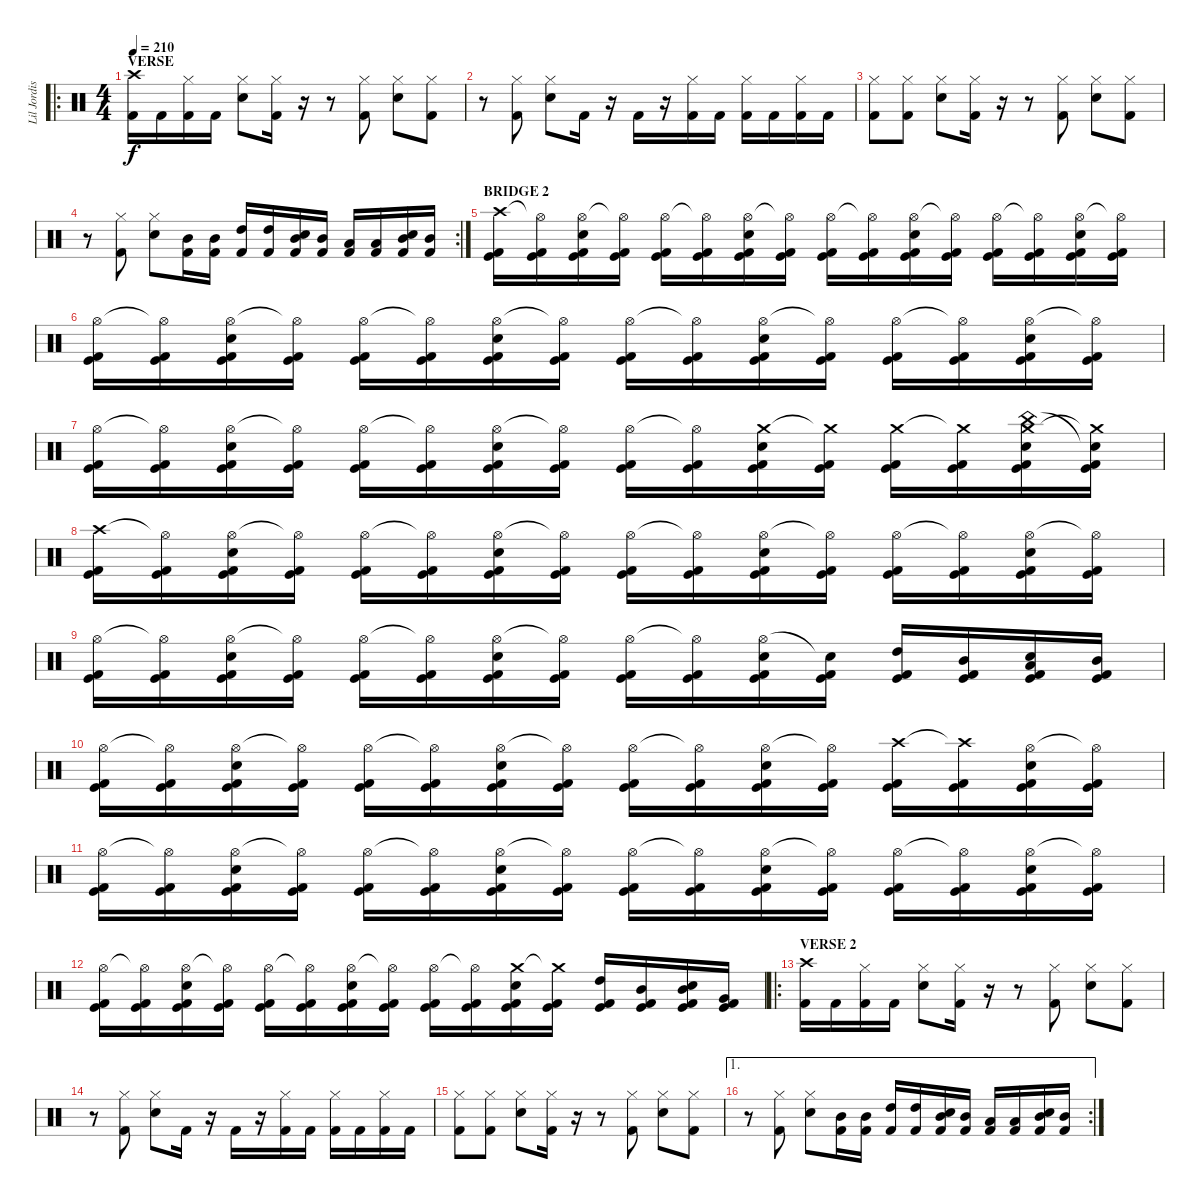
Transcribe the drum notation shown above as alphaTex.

\track ("Lil Jordison" "Lil Jordis") {instrument percussion}
\staff {score}
\articulation defaults
\ro
\ts (4 4)
\section ("" "VERSE")
\tempo 210
\clef neutral
\ks c
("Crash high (hit)" "Kick (hit) 2").16{dy f} "Kick (hit) 2".16 ("Hi-Hat (closed)" "Kick (hit) 2").16 "Kick (hit) 2".16 ("Hi-Hat (closed)" "Electric Snare (hit)").8 ("Hi-Hat (closed)" "Kick (hit) 2").16 r.16 r.8 ("Hi-Hat (closed)" "Kick (hit) 2").8 ("Hi-Hat (closed)" "Electric Snare (hit)").8 ("Hi-Hat (closed)" "Kick (hit) 2").8 |
r.8 ("Hi-Hat (closed)" "Kick (hit) 2").8 ("Hi-Hat (closed)" "Electric Snare (hit)").8 "Kick (hit) 2".16 r.16 "Kick (hit) 2".16 r.16 ("Hi-Hat (closed)" "Kick (hit) 2").16 "Kick (hit) 2".16 ("Hi-Hat (closed)" "Kick (hit) 2").16 "Kick (hit) 2".16 ("Hi-Hat (closed)" "Kick (hit) 2").16 "Kick (hit) 2".16 |
("Hi-Hat (closed)" "Kick (hit) 2").8 ("Hi-Hat (closed)" "Kick (hit) 2").8 ("Hi-Hat (closed)" "Electric Snare (hit)").8 ("Hi-Hat (closed)" "Kick (hit) 2").16 r.16 r.8 ("Hi-Hat (closed)" "Kick (hit) 2").8 ("Hi-Hat (closed)" "Electric Snare (hit)").8 ("Hi-Hat (closed)" "Kick (hit) 2").8 |
\rc 2
r.8 ("Hi-Hat (closed)" "Kick (hit) 2").8 ("Hi-Hat (closed)" "Electric Snare (hit)").8 ("Mid Tom (hit)" "Kick (hit) 2").16 ("Mid Tom (hit)" "Kick (hit) 2").16 ("High Tom (hit)" "Kick (hit) 2").16 ("High Tom (hit)" "Kick (hit) 2").16 ("Mid Tom (hit)" "Electric Snare (hit)" "Kick (hit) 2").16 ("Mid Tom (hit)" "Kick (hit) 2").16 ("Low Tom (hit)" "Kick (hit) 2").16 ("Low Tom (hit)" "Kick (hit) 2").16 ("Mid Tom (hit)" "Electric Snare (hit)" "Kick (hit) 2").16 ("Mid Tom (hit)" "Kick (hit) 2").16 |
\section ("" "BRIDGE 2")
("Crash high (hit)" "Kick (hit)" "Kick (hit) 2").16 ("Hi-Hat (open)"{t} "Kick (hit)" "Kick (hit) 2").16 ("Hi-Hat (open)" "Electric Snare (hit)" "Kick (hit)" "Kick (hit) 2").16 ("Hi-Hat (open)"{t} "Kick (hit)" "Kick (hit) 2").16 ("Hi-Hat (open)" "Kick (hit)" "Kick (hit) 2").16 ("Hi-Hat (open)"{t} "Kick (hit)" "Kick (hit) 2").16 ("Hi-Hat (open)" "Electric Snare (hit)" "Kick (hit)" "Kick (hit) 2").16 ("Hi-Hat (open)"{t} "Kick (hit)" "Kick (hit) 2").16 ("Hi-Hat (open)" "Kick (hit)" "Kick (hit) 2").16 ("Hi-Hat (open)"{t} "Kick (hit)" "Kick (hit) 2").16 ("Hi-Hat (open)" "Electric Snare (hit)" "Kick (hit)" "Kick (hit) 2").16 ("Hi-Hat (open)"{t} "Kick (hit)" "Kick (hit) 2").16 ("Hi-Hat (open)" "Kick (hit)" "Kick (hit) 2").16 ("Hi-Hat (open)"{t} "Kick (hit)" "Kick (hit) 2").16 ("Hi-Hat (open)" "Electric Snare (hit)" "Kick (hit)" "Kick (hit) 2").16 ("Hi-Hat (open)"{t} "Kick (hit)" "Kick (hit) 2").16 |
("Hi-Hat (open)" "Kick (hit)" "Kick (hit) 2").16 ("Hi-Hat (open)"{t} "Kick (hit)" "Kick (hit) 2").16 ("Hi-Hat (open)" "Electric Snare (hit)" "Kick (hit)" "Kick (hit) 2").16 ("Hi-Hat (open)"{t} "Kick (hit)" "Kick (hit) 2").16 ("Hi-Hat (open)" "Kick (hit)" "Kick (hit) 2").16 ("Hi-Hat (open)"{t} "Kick (hit)" "Kick (hit) 2").16 ("Hi-Hat (open)" "Electric Snare (hit)" "Kick (hit)" "Kick (hit) 2").16 ("Hi-Hat (open)"{t} "Kick (hit)" "Kick (hit) 2").16 ("Hi-Hat (open)" "Kick (hit)" "Kick (hit) 2").16 ("Hi-Hat (open)"{t} "Kick (hit)" "Kick (hit) 2").16 ("Hi-Hat (open)" "Electric Snare (hit)" "Kick (hit)" "Kick (hit) 2").16 ("Hi-Hat (open)"{t} "Kick (hit)" "Kick (hit) 2").16 ("Hi-Hat (open)" "Kick (hit)" "Kick (hit) 2").16 ("Hi-Hat (open)"{t} "Kick (hit)" "Kick (hit) 2").16 ("Hi-Hat (open)" "Electric Snare (hit)" "Kick (hit)" "Kick (hit) 2").16 ("Hi-Hat (open)"{t} "Kick (hit)" "Kick (hit) 2").16 |
("Hi-Hat (open)" "Kick (hit)" "Kick (hit) 2").16 ("Hi-Hat (open)"{t} "Kick (hit)" "Kick (hit) 2").16 ("Hi-Hat (open)" "Electric Snare (hit)" "Kick (hit)" "Kick (hit) 2").16 ("Hi-Hat (open)"{t} "Kick (hit)" "Kick (hit) 2").16 ("Hi-Hat (open)" "Kick (hit)" "Kick (hit) 2").16 ("Hi-Hat (open)"{t} "Kick (hit)" "Kick (hit) 2").16 ("Hi-Hat (open)" "Electric Snare (hit)" "Kick (hit)" "Kick (hit) 2").16 ("Hi-Hat (open)"{t} "Kick (hit)" "Kick (hit) 2").16 ("Hi-Hat (open)" "Kick (hit)" "Kick (hit) 2").16 ("Hi-Hat (open)"{t} "Kick (hit)" "Kick (hit) 2").16 ("Crash medium (hit)" "Electric Snare (hit)" "Kick (hit)" "Kick (hit) 2").16 ("Crash medium (hit)"{t} "Kick (hit)" "Kick (hit) 2").16 ("Crash medium (hit)" "Kick (hit)" "Kick (hit) 2").16 ("Crash medium (hit)"{t} "Kick (hit)" "Kick (hit) 2").16 ("Crash medium (hit)" "China (hit)" "Electric Snare (hit)" "Kick (hit)" "Kick (hit) 2").16 ("Crash medium (hit)"{t} "Snare (hit)"{t} "Kick (hit)" "Kick (hit) 2").16 |
("Crash high (hit)" "Kick (hit)" "Kick (hit) 2").16 ("Hi-Hat (open)"{t} "Kick (hit)" "Kick (hit) 2").16 ("Hi-Hat (open)" "Electric Snare (hit)" "Kick (hit)" "Kick (hit) 2").16 ("Hi-Hat (open)"{t} "Kick (hit)" "Kick (hit) 2").16 ("Hi-Hat (open)" "Kick (hit)" "Kick (hit) 2").16 ("Hi-Hat (open)"{t} "Kick (hit)" "Kick (hit) 2").16 ("Hi-Hat (open)" "Electric Snare (hit)" "Kick (hit)" "Kick (hit) 2").16 ("Hi-Hat (open)"{t} "Kick (hit)" "Kick (hit) 2").16 ("Hi-Hat (open)" "Kick (hit)" "Kick (hit) 2").16 ("Hi-Hat (open)"{t} "Kick (hit)" "Kick (hit) 2").16 ("Hi-Hat (open)" "Electric Snare (hit)" "Kick (hit)" "Kick (hit) 2").16 ("Hi-Hat (open)"{t} "Kick (hit)" "Kick (hit) 2").16 ("Hi-Hat (open)" "Kick (hit)" "Kick (hit) 2").16 ("Hi-Hat (open)"{t} "Kick (hit)" "Kick (hit) 2").16 ("Hi-Hat (open)" "Electric Snare (hit)" "Kick (hit)" "Kick (hit) 2").16 ("Hi-Hat (open)"{t} "Kick (hit)" "Kick (hit) 2").16 |
("Hi-Hat (open)" "Kick (hit)" "Kick (hit) 2").16 ("Hi-Hat (open)"{t} "Kick (hit)" "Kick (hit) 2").16 ("Hi-Hat (open)" "Electric Snare (hit)" "Kick (hit)" "Kick (hit) 2").16 ("Hi-Hat (open)"{t} "Kick (hit)" "Kick (hit) 2").16 ("Hi-Hat (open)" "Kick (hit)" "Kick (hit) 2").16 ("Hi-Hat (open)"{t} "Kick (hit)" "Kick (hit) 2").16 ("Hi-Hat (open)" "Electric Snare (hit)" "Kick (hit)" "Kick (hit) 2").16 ("Hi-Hat (open)"{t} "Kick (hit)" "Kick (hit) 2").16 ("Hi-Hat (open)" "Kick (hit)" "Kick (hit) 2").16 ("Hi-Hat (open)"{t} "Kick (hit)" "Kick (hit) 2").16 ("Hi-Hat (open)" "Electric Snare (hit)" "Kick (hit)" "Kick (hit) 2").16 ("Snare (hit)"{t} "Kick (hit)" "Kick (hit) 2").16 ("High Tom (hit)" "Kick (hit)" "Kick (hit) 2").16 ("Mid Tom (hit)" "Kick (hit)" "Kick (hit) 2").16 ("Low Tom (hit)" "Electric Snare (hit)" "Kick (hit)" "Kick (hit) 2").16 ("Mid Tom (hit)" "Kick (hit)" "Kick (hit) 2").16 |
("Hi-Hat (open)" "Kick (hit)" "Kick (hit) 2").16 ("Hi-Hat (open)"{t} "Kick (hit)" "Kick (hit) 2").16 ("Hi-Hat (open)" "Electric Snare (hit)" "Kick (hit)" "Kick (hit) 2").16 ("Hi-Hat (open)"{t} "Kick (hit)" "Kick (hit) 2").16 ("Hi-Hat (open)" "Kick (hit)" "Kick (hit) 2").16 ("Hi-Hat (open)"{t} "Kick (hit)" "Kick (hit) 2").16 ("Hi-Hat (open)" "Electric Snare (hit)" "Kick (hit)" "Kick (hit) 2").16 ("Hi-Hat (open)"{t} "Kick (hit)" "Kick (hit) 2").16 ("Hi-Hat (open)" "Kick (hit)" "Kick (hit) 2").16 ("Hi-Hat (open)"{t} "Kick (hit)" "Kick (hit) 2").16 ("Hi-Hat (open)" "Electric Snare (hit)" "Kick (hit)" "Kick (hit) 2").16 ("Hi-Hat (open)"{t} "Kick (hit)" "Kick (hit) 2").16 ("Crash high (hit)" "Kick (hit)" "Kick (hit) 2").16 ("Crash high (hit)"{t} "Kick (hit)" "Kick (hit) 2").16 ("Hi-Hat (open)" "Electric Snare (hit)" "Kick (hit)" "Kick (hit) 2").16 ("Hi-Hat (open)"{t} "Kick (hit)" "Kick (hit) 2").16 |
("Hi-Hat (open)" "Kick (hit)" "Kick (hit) 2").16 ("Hi-Hat (open)"{t} "Kick (hit)" "Kick (hit) 2").16 ("Hi-Hat (open)" "Electric Snare (hit)" "Kick (hit)" "Kick (hit) 2").16 ("Hi-Hat (open)"{t} "Kick (hit)" "Kick (hit) 2").16 ("Hi-Hat (open)" "Kick (hit)" "Kick (hit) 2").16 ("Hi-Hat (open)"{t} "Kick (hit)" "Kick (hit) 2").16 ("Hi-Hat (open)" "Electric Snare (hit)" "Kick (hit)" "Kick (hit) 2").16 ("Hi-Hat (open)"{t} "Kick (hit)" "Kick (hit) 2").16 ("Hi-Hat (open)" "Kick (hit)" "Kick (hit) 2").16 ("Hi-Hat (open)"{t} "Kick (hit)" "Kick (hit) 2").16 ("Hi-Hat (open)" "Electric Snare (hit)" "Kick (hit)" "Kick (hit) 2").16 ("Hi-Hat (open)"{t} "Kick (hit)" "Kick (hit) 2").16 ("Hi-Hat (open)" "Kick (hit)" "Kick (hit) 2").16 ("Hi-Hat (open)"{t} "Kick (hit)" "Kick (hit) 2").16 ("Hi-Hat (open)" "Electric Snare (hit)" "Kick (hit)" "Kick (hit) 2").16 ("Hi-Hat (open)"{t} "Kick (hit)" "Kick (hit) 2").16 |
("Hi-Hat (open)" "Kick (hit)" "Kick (hit) 2").16 ("Hi-Hat (open)"{t} "Kick (hit)" "Kick (hit) 2").16 ("Hi-Hat (open)" "Electric Snare (hit)" "Kick (hit)" "Kick (hit) 2").16 ("Hi-Hat (open)"{t} "Kick (hit)" "Kick (hit) 2").16 ("Hi-Hat (open)" "Kick (hit)" "Kick (hit) 2").16 ("Hi-Hat (open)"{t} "Kick (hit)" "Kick (hit) 2").16 ("Hi-Hat (open)" "Electric Snare (hit)" "Kick (hit)" "Kick (hit) 2").16 ("Hi-Hat (open)"{t} "Kick (hit)" "Kick (hit) 2").16 ("Hi-Hat (open)" "Kick (hit)" "Kick (hit) 2").16 ("Hi-Hat (open)"{t} "Kick (hit)" "Kick (hit) 2").16 ("Crash medium (hit)" "Electric Snare (hit)" "Kick (hit)" "Kick (hit) 2").16 ("Crash medium (hit)"{t} "Kick (hit)" "Kick (hit) 2").16 ("High Tom (hit)" "Kick (hit)" "Kick (hit) 2").16 ("Mid Tom (hit)" "Kick (hit)" "Kick (hit) 2").16 ("Mid Tom (hit)" "Electric Snare (hit)" "Kick (hit)" "Kick (hit) 2").16 ("Very Low Tom (hit)" "Kick (hit)" "Kick (hit) 2").16 |
\ro
\section ("" "VERSE 2")
("Crash high (hit)" "Kick (hit) 2").16 "Kick (hit) 2".16 ("Hi-Hat (closed)" "Kick (hit) 2").16 "Kick (hit) 2".16 ("Hi-Hat (closed)" "Electric Snare (hit)").8 ("Hi-Hat (closed)" "Kick (hit) 2").16 r.16 r.8 ("Hi-Hat (closed)" "Kick (hit) 2").8 ("Hi-Hat (closed)" "Electric Snare (hit)").8 ("Hi-Hat (closed)" "Kick (hit) 2").8 |
r.8 ("Hi-Hat (closed)" "Kick (hit) 2").8 ("Hi-Hat (closed)" "Electric Snare (hit)").8 "Kick (hit) 2".16 r.16 "Kick (hit) 2".16 r.16 ("Hi-Hat (closed)" "Kick (hit) 2").16 "Kick (hit) 2".16 ("Hi-Hat (closed)" "Kick (hit) 2").16 "Kick (hit) 2".16 ("Hi-Hat (closed)" "Kick (hit) 2").16 "Kick (hit) 2".16 |
("Hi-Hat (closed)" "Kick (hit) 2").8 ("Hi-Hat (closed)" "Kick (hit) 2").8 ("Hi-Hat (closed)" "Electric Snare (hit)").8 ("Hi-Hat (closed)" "Kick (hit) 2").16 r.16 r.8 ("Hi-Hat (closed)" "Kick (hit) 2").8 ("Hi-Hat (closed)" "Electric Snare (hit)").8 ("Hi-Hat (closed)" "Kick (hit) 2").8 |
\ae 1
\rc 2
r.8 ("Hi-Hat (closed)" "Kick (hit) 2").8 ("Hi-Hat (closed)" "Electric Snare (hit)").8 ("Mid Tom (hit)" "Kick (hit) 2").16 ("Mid Tom (hit)" "Kick (hit) 2").16 ("High Tom (hit)" "Kick (hit) 2").16 ("High Tom (hit)" "Kick (hit) 2").16 ("Mid Tom (hit)" "Electric Snare (hit)" "Kick (hit) 2").16 ("Mid Tom (hit)" "Kick (hit) 2").16 ("Low Tom (hit)" "Kick (hit) 2").16 ("Low Tom (hit)" "Kick (hit) 2").16 ("Mid Tom (hit)" "Electric Snare (hit)" "Kick (hit) 2").16 ("Mid Tom (hit)" "Kick (hit) 2").16
